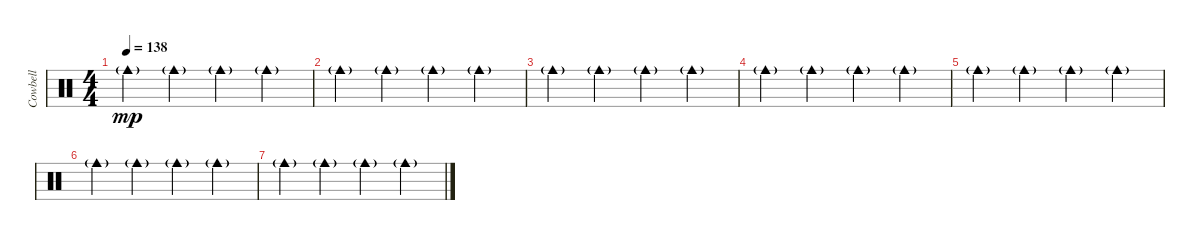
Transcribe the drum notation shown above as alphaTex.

\track ("Cowbell" "Cowbell") {instrument percussion}
\staff {score}
\articulation defaults
\ts (4 4)
\tempo 138
\clef neutral
\ks c "Cowbell medium (hit)"{g}.4{dy mp} "Cowbell medium (hit)"{g}.4 "Cowbell medium (hit)"{g}.4 "Cowbell medium (hit)"{g}.4
|
"Cowbell medium (hit)"{g}.4 "Cowbell medium (hit)"{g}.4 "Cowbell medium (hit)"{g}.4 "Cowbell medium (hit)"{g}.4 |
"Cowbell medium (hit)"{g}.4 "Cowbell medium (hit)"{g}.4 "Cowbell medium (hit)"{g}.4 "Cowbell medium (hit)"{g}.4 |
"Cowbell medium (hit)"{g}.4 "Cowbell medium (hit)"{g}.4 "Cowbell medium (hit)"{g}.4 "Cowbell medium (hit)"{g}.4 |
"Cowbell medium (hit)"{g}.4 "Cowbell medium (hit)"{g}.4 "Cowbell medium (hit)"{g}.4 "Cowbell medium (hit)"{g}.4 |
"Cowbell medium (hit)"{g}.4 "Cowbell medium (hit)"{g}.4 "Cowbell medium (hit)"{g}.4 "Cowbell medium (hit)"{g}.4 |
"Cowbell medium (hit)"{g}.4 "Cowbell medium (hit)"{g}.4 "Cowbell medium (hit)"{g}.4 "Cowbell medium (hit)"{g}.4
